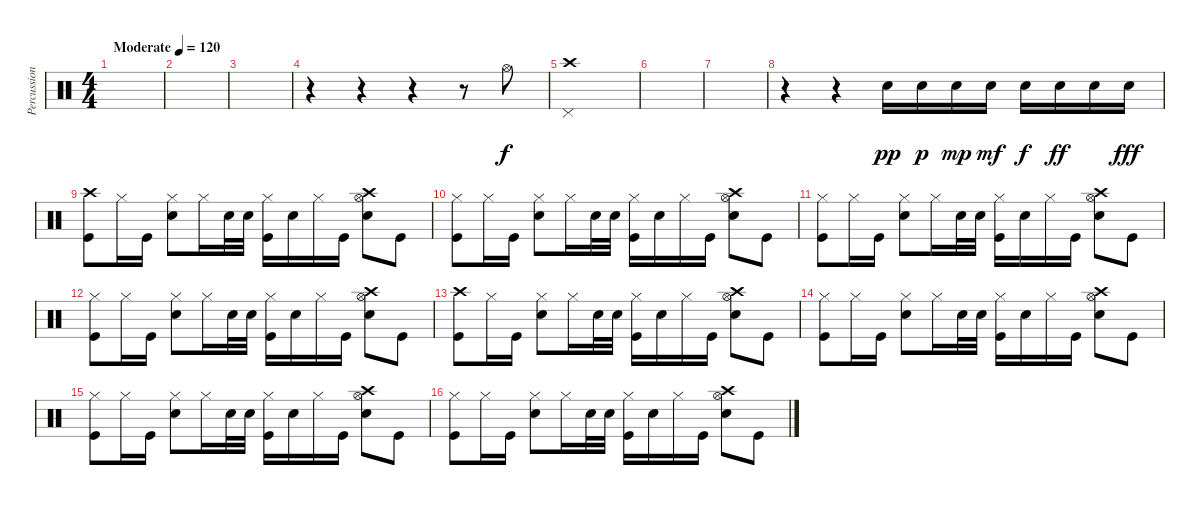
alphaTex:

\track ("Percussion" "Percussion") {instrument percussion}
\staff {score}
\articulation defaults
\ts (4 4)
\tempo (120 "Moderate")
\clef neutral
\ks c
|
|
|
r.4 r.4 r.4 r.8 "Hi-Hat (open)".8 |
("Pedal Hi-Hat (hit)" "Crash high (hit)").1 |
|
|
r.4 r.4 "Snare (hit) 2".16{dy pp} "Snare (hit) 2".16{dy p} "Snare (hit) 2".16{dy mp} "Snare (hit) 2".16{dy mf} "Snare (hit) 2".16{dy f} "Snare (hit) 2".16{dy ff} "Snare (hit) 2".16 "Snare (hit) 2".16{dy fff} |
("Crash high (hit)" "Kick (hit)").8 "Hi-Hat (closed)".16 "Kick (hit)".16 ("Snare (hit) 2" "Hi-Hat (closed)").8 "Hi-Hat (closed)".16 "Snare (hit) 2".32 "Snare (hit) 2".32 ("Hi-Hat (closed)" "Kick (hit)").16 "Snare (hit) 2".16 "Hi-Hat (closed)".16 "Kick (hit)".16 ("Snare (hit) 2" "Hi-Hat (open)" "Crash high (hit)").8 "Kick (hit)".8 |
("Hi-Hat (closed)" "Kick (hit)").8 "Hi-Hat (closed)".16 "Kick (hit)".16 ("Snare (hit) 2" "Hi-Hat (closed)").8 "Hi-Hat (closed)".16 "Snare (hit) 2".32 "Snare (hit) 2".32 ("Hi-Hat (closed)" "Kick (hit)").16 "Snare (hit) 2".16 "Hi-Hat (closed)".16 "Kick (hit)".16 ("Snare (hit) 2" "Hi-Hat (open)" "Crash high (hit)").8 "Kick (hit)".8 |
("Hi-Hat (closed)" "Kick (hit)").8 "Hi-Hat (closed)".16 "Kick (hit)".16 ("Snare (hit) 2" "Hi-Hat (closed)").8 "Hi-Hat (closed)".16 "Snare (hit) 2".32 "Snare (hit) 2".32 ("Hi-Hat (closed)" "Kick (hit)").16 "Snare (hit) 2".16 "Hi-Hat (closed)".16 "Kick (hit)".16 ("Snare (hit) 2" "Hi-Hat (open)" "Crash high (hit)").8 "Kick (hit)".8 |
("Hi-Hat (closed)" "Kick (hit)").8 "Hi-Hat (closed)".16 "Kick (hit)".16 ("Snare (hit) 2" "Hi-Hat (closed)").8 "Hi-Hat (closed)".16 "Snare (hit) 2".32 "Snare (hit) 2".32 ("Hi-Hat (closed)" "Kick (hit)").16 "Snare (hit) 2".16 "Hi-Hat (closed)".16 "Kick (hit)".16 ("Snare (hit) 2" "Hi-Hat (open)" "Crash high (hit)").8 "Kick (hit)".8 |
("Crash high (hit)" "Kick (hit)").8 "Hi-Hat (closed)".16 "Kick (hit)".16 ("Snare (hit) 2" "Hi-Hat (closed)").8 "Hi-Hat (closed)".16 "Snare (hit) 2".32 "Snare (hit) 2".32 ("Hi-Hat (closed)" "Kick (hit)").16 "Snare (hit) 2".16 "Hi-Hat (closed)".16 "Kick (hit)".16 ("Snare (hit) 2" "Hi-Hat (open)" "Crash high (hit)").8 "Kick (hit)".8 |
("Hi-Hat (closed)" "Kick (hit)").8 "Hi-Hat (closed)".16 "Kick (hit)".16 ("Snare (hit) 2" "Hi-Hat (closed)").8 "Hi-Hat (closed)".16 "Snare (hit) 2".32 "Snare (hit) 2".32 ("Hi-Hat (closed)" "Kick (hit)").16 "Snare (hit) 2".16 "Hi-Hat (closed)".16 "Kick (hit)".16 ("Snare (hit) 2" "Hi-Hat (open)" "Crash high (hit)").8 "Kick (hit)".8 |
("Hi-Hat (closed)" "Kick (hit)").8 "Hi-Hat (closed)".16 "Kick (hit)".16 ("Snare (hit) 2" "Hi-Hat (closed)").8 "Hi-Hat (closed)".16 "Snare (hit) 2".32 "Snare (hit) 2".32 ("Hi-Hat (closed)" "Kick (hit)").16 "Snare (hit) 2".16 "Hi-Hat (closed)".16 "Kick (hit)".16 ("Snare (hit) 2" "Hi-Hat (open)" "Crash high (hit)").8 "Kick (hit)".8 |
("Hi-Hat (closed)" "Kick (hit)").8 "Hi-Hat (closed)".16 "Kick (hit)".16 ("Snare (hit) 2" "Hi-Hat (closed)").8 "Hi-Hat (closed)".16 "Snare (hit) 2".32 "Snare (hit) 2".32 ("Hi-Hat (closed)" "Kick (hit)").16 "Snare (hit) 2".16 "Hi-Hat (closed)".16 "Kick (hit)".16 ("Snare (hit) 2" "Hi-Hat (open)" "Crash high (hit)").8 "Kick (hit)".8
